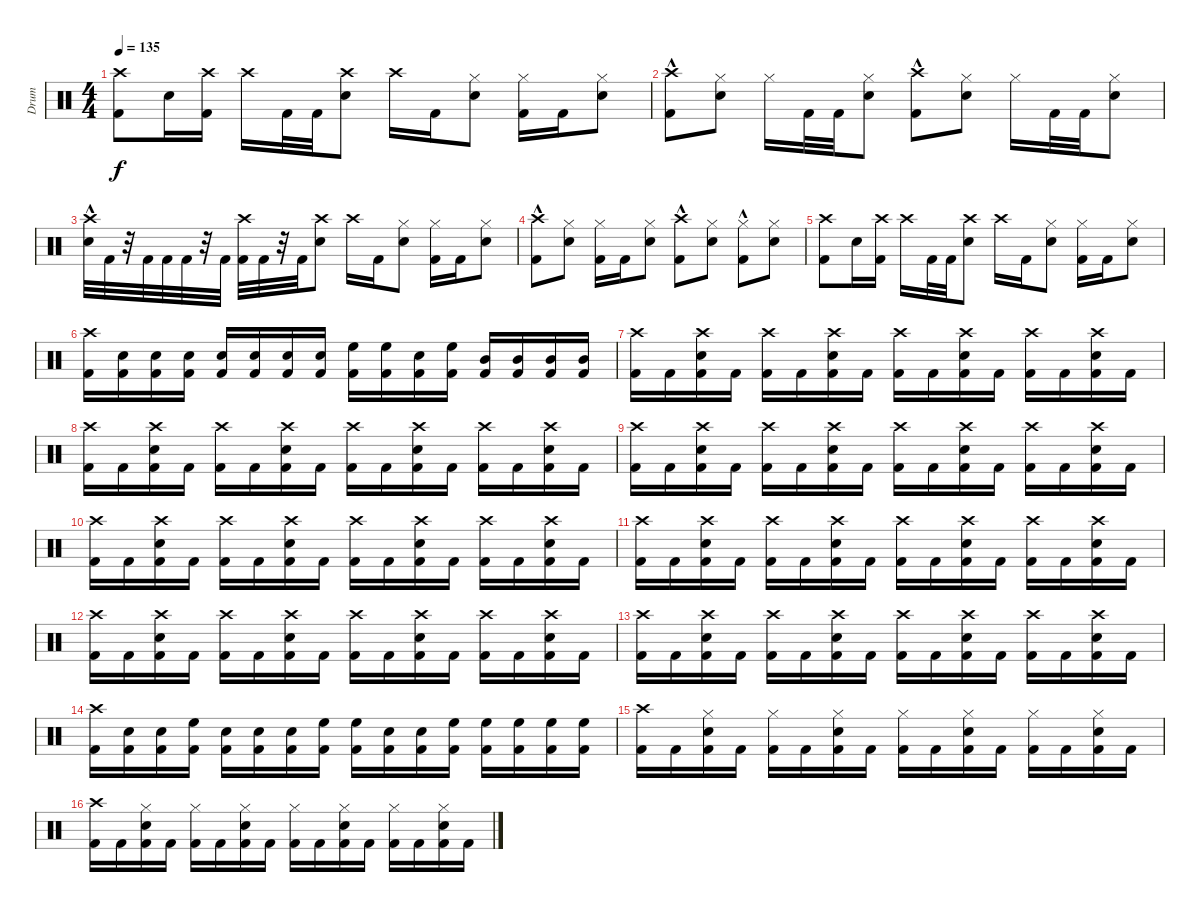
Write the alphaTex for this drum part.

\track ("Drum" "Drum") {instrument percussion}
\staff {score}
\articulation defaults
\ts (4 4)
\tempo 135
\clef neutral
\ks c
("Crash high (hit)" "Kick (hit) 2").8{dy f} "Snare (hit) 2".16 ("Crash high (hit)" "Kick (hit) 2").16 "Crash high (hit)".16 "Kick (hit) 2".32 "Kick (hit) 2".32 ("Crash high (hit)" "Snare (hit) 2").8 "Crash high (hit)".16 "Kick (hit) 2".16 ("Hi-Hat (closed)" "Snare (hit) 2").8 ("Hi-Hat (closed)" "Kick (hit) 2").16 "Kick (hit) 2".16 ("Hi-Hat (closed)" "Snare (hit) 2").8 |
("Crash high (hit)" "Kick (hit) 2"{hac}).8 ("Hi-Hat (closed)" "Snare (hit) 2").8 "Hi-Hat (closed)".16 "Kick (hit) 2".32 "Kick (hit) 2".32 ("Hi-Hat (closed)" "Snare (hit) 2").8 ("Crash high (hit)" "Kick (hit) 2"{hac}).8 ("Hi-Hat (closed)" "Snare (hit) 2").8 "Hi-Hat (closed)".16 "Kick (hit) 2".32 "Kick (hit) 2".32 ("Hi-Hat (closed)" "Snare (hit) 2").8 |
("Crash high (hit)"{hac} "Snare (hit) 2"{hac}).32 "Kick (hit) 2".32 r.32 "Kick (hit) 2".32 "Kick (hit) 2".32 "Kick (hit) 2".32 r.32 "Kick (hit) 2".32 ("Crash high (hit)" "Kick (hit) 2").32 "Kick (hit) 2".32 r.32 "Kick (hit) 2".32 ("Crash high (hit)" "Snare (hit) 2").8 "Crash high (hit)".16 "Kick (hit) 2".16 ("Hi-Hat (closed)" "Snare (hit) 2").8 ("Hi-Hat (closed)" "Kick (hit) 2").16 "Kick (hit) 2".16 ("Hi-Hat (closed)" "Snare (hit) 2").8 |
("Crash high (hit)" "Kick (hit) 2"{hac}).8 ("Hi-Hat (closed)" "Snare (hit) 2").8 ("Hi-Hat (closed)" "Kick (hit) 2").16 "Kick (hit) 2".16 ("Hi-Hat (closed)" "Snare (hit) 2").8 ("Crash high (hit)" "Kick (hit) 2"{hac}).8 ("Hi-Hat (closed)" "Snare (hit) 2").8 ("Hi-Hat (closed)" "Kick (hit) 2"{hac}).8 ("Hi-Hat (closed)" "Snare (hit) 2").8 |
("Crash high (hit)" "Kick (hit) 2").8 "Snare (hit) 2".16 ("Crash high (hit)" "Kick (hit) 2").16 "Crash high (hit)".16 "Kick (hit) 2".32 "Kick (hit) 2".32 ("Crash high (hit)" "Snare (hit) 2").8 "Crash high (hit)".16 "Kick (hit) 2".16 ("Hi-Hat (closed)" "Snare (hit) 2").8 ("Hi-Hat (closed)" "Kick (hit) 2").16 "Kick (hit) 2".16 ("Hi-Hat (closed)" "Snare (hit) 2").8 |
("Crash high (hit)" "Kick (hit) 2").16 ("Snare (hit) 2" "Kick (hit) 2").16 ("Snare (hit) 2" "Kick (hit) 2").16 ("Snare (hit) 2" "Kick (hit) 2").16 ("Snare (hit) 2" "Kick (hit) 2").16 ("Snare (hit) 2" "Kick (hit) 2").16 ("Snare (hit) 2" "Kick (hit) 2").16 ("Snare (hit) 2" "Kick (hit) 2").16 ("High Floor Tom (hit)" "Kick (hit) 2").16 ("High Floor Tom (hit)" "Kick (hit) 2").16 ("Snare (hit) 2" "Kick (hit) 2").16 ("High Floor Tom (hit)" "Kick (hit) 2").16 ("Mid Tom (hit)" "Kick (hit) 2").16 ("Mid Tom (hit)" "Kick (hit) 2").16 ("Mid Tom (hit)" "Kick (hit) 2").16 ("Mid Tom (hit)" "Kick (hit) 2").16 |
("Kick (hit) 2" "Crash high (hit)").16 "Kick (hit) 2".16 ("Kick (hit) 2" "Crash high (hit)" "Snare (hit) 2").16 "Kick (hit) 2".16 ("Kick (hit) 2" "Crash high (hit)").16 "Kick (hit) 2".16 ("Kick (hit) 2" "Crash high (hit)" "Snare (hit) 2").16 "Kick (hit) 2".16 ("Kick (hit) 2" "Crash high (hit)").16 "Kick (hit) 2".16 ("Kick (hit) 2" "Crash high (hit)" "Snare (hit) 2").16 "Kick (hit) 2".16 ("Kick (hit) 2" "Crash high (hit)").16 "Kick (hit) 2".16 ("Kick (hit) 2" "Crash high (hit)" "Snare (hit) 2").16 "Kick (hit) 2".16 |
("Kick (hit) 2" "Crash high (hit)").16 "Kick (hit) 2".16 ("Kick (hit) 2" "Crash high (hit)" "Snare (hit) 2").16 "Kick (hit) 2".16 ("Kick (hit) 2" "Crash high (hit)").16 "Kick (hit) 2".16 ("Kick (hit) 2" "Crash high (hit)" "Snare (hit) 2").16 "Kick (hit) 2".16 ("Kick (hit) 2" "Crash high (hit)").16 "Kick (hit) 2".16 ("Kick (hit) 2" "Crash high (hit)" "Snare (hit) 2").16 "Kick (hit) 2".16 ("Kick (hit) 2" "Crash high (hit)").16 "Kick (hit) 2".16 ("Kick (hit) 2" "Crash high (hit)" "Snare (hit) 2").16 "Kick (hit) 2".16 |
("Kick (hit) 2" "Crash high (hit)").16 "Kick (hit) 2".16 ("Kick (hit) 2" "Crash high (hit)" "Snare (hit) 2").16 "Kick (hit) 2".16 ("Kick (hit) 2" "Crash high (hit)").16 "Kick (hit) 2".16 ("Kick (hit) 2" "Crash high (hit)" "Snare (hit) 2").16 "Kick (hit) 2".16 ("Kick (hit) 2" "Crash high (hit)").16 "Kick (hit) 2".16 ("Kick (hit) 2" "Crash high (hit)" "Snare (hit) 2").16 "Kick (hit) 2".16 ("Kick (hit) 2" "Crash high (hit)").16 "Kick (hit) 2".16 ("Kick (hit) 2" "Crash high (hit)" "Snare (hit) 2").16 "Kick (hit) 2".16 |
("Kick (hit) 2" "Crash high (hit)").16 "Kick (hit) 2".16 ("Kick (hit) 2" "Crash high (hit)" "Snare (hit) 2").16 "Kick (hit) 2".16 ("Kick (hit) 2" "Crash high (hit)").16 "Kick (hit) 2".16 ("Kick (hit) 2" "Crash high (hit)" "Snare (hit) 2").16 "Kick (hit) 2".16 ("Kick (hit) 2" "Crash high (hit)").16 "Kick (hit) 2".16 ("Kick (hit) 2" "Crash high (hit)" "Snare (hit) 2").16 "Kick (hit) 2".16 ("Kick (hit) 2" "Crash high (hit)").16 "Kick (hit) 2".16 ("Kick (hit) 2" "Crash high (hit)" "Snare (hit) 2").16 "Kick (hit) 2".16 |
("Kick (hit) 2" "Crash high (hit)").16 "Kick (hit) 2".16 ("Kick (hit) 2" "Crash high (hit)" "Snare (hit) 2").16 "Kick (hit) 2".16 ("Kick (hit) 2" "Crash high (hit)").16 "Kick (hit) 2".16 ("Kick (hit) 2" "Crash high (hit)" "Snare (hit) 2").16 "Kick (hit) 2".16 ("Kick (hit) 2" "Crash high (hit)").16 "Kick (hit) 2".16 ("Kick (hit) 2" "Crash high (hit)" "Snare (hit) 2").16 "Kick (hit) 2".16 ("Kick (hit) 2" "Crash high (hit)").16 "Kick (hit) 2".16 ("Kick (hit) 2" "Crash high (hit)" "Snare (hit) 2").16 "Kick (hit) 2".16 |
("Kick (hit) 2" "Crash high (hit)").16 "Kick (hit) 2".16 ("Kick (hit) 2" "Crash high (hit)" "Snare (hit) 2").16 "Kick (hit) 2".16 ("Kick (hit) 2" "Crash high (hit)").16 "Kick (hit) 2".16 ("Kick (hit) 2" "Crash high (hit)" "Snare (hit) 2").16 "Kick (hit) 2".16 ("Kick (hit) 2" "Crash high (hit)").16 "Kick (hit) 2".16 ("Kick (hit) 2" "Crash high (hit)" "Snare (hit) 2").16 "Kick (hit) 2".16 ("Kick (hit) 2" "Crash high (hit)").16 "Kick (hit) 2".16 ("Kick (hit) 2" "Crash high (hit)" "Snare (hit) 2").16 "Kick (hit) 2".16 |
("Kick (hit) 2" "Crash high (hit)").16 "Kick (hit) 2".16 ("Kick (hit) 2" "Crash high (hit)" "Snare (hit) 2").16 "Kick (hit) 2".16 ("Kick (hit) 2" "Crash high (hit)").16 "Kick (hit) 2".16 ("Kick (hit) 2" "Crash high (hit)" "Snare (hit) 2").16 "Kick (hit) 2".16 ("Kick (hit) 2" "Crash high (hit)").16 "Kick (hit) 2".16 ("Kick (hit) 2" "Crash high (hit)" "Snare (hit) 2").16 "Kick (hit) 2".16 ("Kick (hit) 2" "Crash high (hit)").16 "Kick (hit) 2".16 ("Kick (hit) 2" "Crash high (hit)" "Snare (hit) 2").16 "Kick (hit) 2".16 |
("Crash high (hit)" "Kick (hit) 2").16 ("Snare (hit) 2" "Kick (hit) 2").16 ("Snare (hit) 2" "Kick (hit) 2").16 ("Kick (hit) 2" "High Floor Tom (hit)").16 ("Kick (hit) 2" "Snare (hit) 2").16 ("Kick (hit) 2" "Snare (hit) 2").16 ("Kick (hit) 2" "Snare (hit) 2").16 ("Kick (hit) 2" "High Floor Tom (hit)").16 ("Kick (hit) 2" "High Floor Tom (hit)").16 ("Kick (hit) 2" "Snare (hit) 2").16 ("Kick (hit) 2" "Snare (hit) 2").16 ("Kick (hit) 2" "High Floor Tom (hit)").16 ("Kick (hit) 2" "High Floor Tom (hit)").16 ("Kick (hit) 2" "High Floor Tom (hit)").16 ("Kick (hit) 2" "High Floor Tom (hit)").16 ("Kick (hit) 2" "High Floor Tom (hit)").16 |
("Kick (hit) 2" "Crash high (hit)").16 "Kick (hit) 2".16 ("Kick (hit) 2" "Hi-Hat (closed)" "Snare (hit) 2").16 "Kick (hit) 2".16 ("Kick (hit) 2" "Hi-Hat (closed)").16 "Kick (hit) 2".16 ("Kick (hit) 2" "Hi-Hat (closed)" "Snare (hit) 2").16 "Kick (hit) 2".16 ("Kick (hit) 2" "Hi-Hat (closed)").16 "Kick (hit) 2".16 ("Kick (hit) 2" "Hi-Hat (closed)" "Snare (hit) 2").16 "Kick (hit) 2".16 ("Kick (hit) 2" "Hi-Hat (closed)").16 "Kick (hit) 2".16 ("Kick (hit) 2" "Hi-Hat (closed)" "Snare (hit) 2").16 "Kick (hit) 2".16 |
("Kick (hit) 2" "Crash high (hit)").16 "Kick (hit) 2".16 ("Kick (hit) 2" "Hi-Hat (closed)" "Snare (hit) 2").16 "Kick (hit) 2".16 ("Kick (hit) 2" "Hi-Hat (closed)").16 "Kick (hit) 2".16 ("Kick (hit) 2" "Hi-Hat (closed)" "Snare (hit) 2").16 "Kick (hit) 2".16 ("Kick (hit) 2" "Hi-Hat (closed)").16 "Kick (hit) 2".16 ("Kick (hit) 2" "Hi-Hat (closed)" "Snare (hit) 2").16 "Kick (hit) 2".16 ("Kick (hit) 2" "Hi-Hat (closed)").16 "Kick (hit) 2".16 ("Kick (hit) 2" "Hi-Hat (closed)" "Snare (hit) 2").16 "Kick (hit) 2".16
